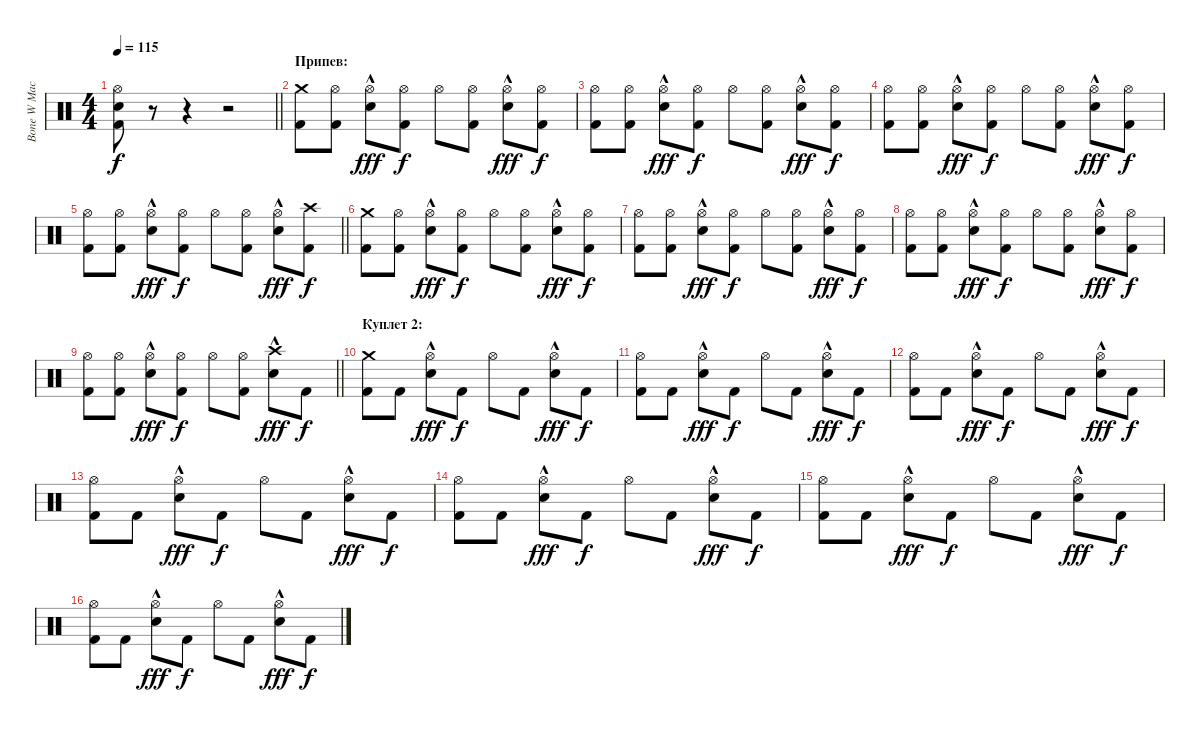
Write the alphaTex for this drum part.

\track ("Bone W Machine" "Bone W Mac") {instrument percussion}
\staff {score}
\articulation defaults
\ts (4 4)
\tempo 115
\clef neutral
\barLineRight lightlight
\ks c
("Hi-Hat (open)" "Electric Snare (hit)" "Kick (hit) 2").8{dy f} r.8 r.4 r.2 |
\section ("" "Припев:")
("Crash medium (hit)" "Kick (hit) 2").8 ("Hi-Hat (open)" "Kick (hit) 2").8 ("Hi-Hat (open)" "Electric Snare (hit)"{hac}).8{dy fff} ("Hi-Hat (open)" "Kick (hit) 2").8{dy f} "Hi-Hat (open)".8 ("Hi-Hat (open)" "Kick (hit) 2").8 ("Hi-Hat (open)" "Electric Snare (hit)"{hac}).8{dy fff} ("Hi-Hat (open)" "Kick (hit) 2").8{dy f} |
("Hi-Hat (open)" "Kick (hit) 2").8 ("Hi-Hat (open)" "Kick (hit) 2").8 ("Hi-Hat (open)" "Electric Snare (hit)"{hac}).8{dy fff} ("Hi-Hat (open)" "Kick (hit) 2").8{dy f} "Hi-Hat (open)".8 ("Hi-Hat (open)" "Kick (hit) 2").8 ("Hi-Hat (open)" "Electric Snare (hit)"{hac}).8{dy fff} ("Hi-Hat (open)" "Kick (hit) 2").8{dy f} |
("Hi-Hat (open)" "Kick (hit) 2").8 ("Hi-Hat (open)" "Kick (hit) 2").8 ("Hi-Hat (open)" "Electric Snare (hit)"{hac}).8{dy fff} ("Hi-Hat (open)" "Kick (hit) 2").8{dy f} "Hi-Hat (open)".8 ("Hi-Hat (open)" "Kick (hit) 2").8 ("Hi-Hat (open)" "Electric Snare (hit)"{hac}).8{dy fff} ("Hi-Hat (open)" "Kick (hit) 2").8{dy f} |
\barLineRight lightlight
("Hi-Hat (open)" "Kick (hit) 2").8 ("Hi-Hat (open)" "Kick (hit) 2").8 ("Hi-Hat (open)" "Electric Snare (hit)"{hac}).8{dy fff} ("Hi-Hat (open)" "Kick (hit) 2").8{dy f} "Hi-Hat (open)".8 ("Hi-Hat (open)" "Kick (hit) 2").8 ("Hi-Hat (open)" "Electric Snare (hit)"{hac}).8{dy fff} ("Crash high (hit)" "Kick (hit) 2").8{dy f} |
("Crash medium (hit)" "Kick (hit) 2").8 ("Hi-Hat (open)" "Kick (hit) 2").8 ("Hi-Hat (open)" "Electric Snare (hit)"{hac}).8{dy fff} ("Hi-Hat (open)" "Kick (hit) 2").8{dy f} "Hi-Hat (open)".8 ("Hi-Hat (open)" "Kick (hit) 2").8 ("Hi-Hat (open)" "Electric Snare (hit)"{hac}).8{dy fff} ("Hi-Hat (open)" "Kick (hit) 2").8{dy f} |
("Hi-Hat (open)" "Kick (hit) 2").8 ("Hi-Hat (open)" "Kick (hit) 2").8 ("Hi-Hat (open)" "Electric Snare (hit)"{hac}).8{dy fff} ("Hi-Hat (open)" "Kick (hit) 2").8{dy f} "Hi-Hat (open)".8 ("Hi-Hat (open)" "Kick (hit) 2").8 ("Hi-Hat (open)" "Electric Snare (hit)"{hac}).8{dy fff} ("Hi-Hat (open)" "Kick (hit) 2").8{dy f} |
("Hi-Hat (open)" "Kick (hit) 2").8 ("Hi-Hat (open)" "Kick (hit) 2").8 ("Hi-Hat (open)" "Electric Snare (hit)"{hac}).8{dy fff} ("Hi-Hat (open)" "Kick (hit) 2").8{dy f} "Hi-Hat (open)".8 ("Hi-Hat (open)" "Kick (hit) 2").8 ("Hi-Hat (open)" "Electric Snare (hit)"{hac}).8{dy fff} ("Hi-Hat (open)" "Kick (hit) 2").8{dy f} |
\barLineRight lightlight
("Hi-Hat (open)" "Kick (hit) 2").8 ("Hi-Hat (open)" "Kick (hit) 2").8 ("Hi-Hat (open)" "Electric Snare (hit)"{hac}).8{dy fff} ("Hi-Hat (open)" "Kick (hit) 2").8{dy f} "Hi-Hat (open)".8 ("Hi-Hat (open)" "Kick (hit) 2").8 ("Crash high (hit)" "Electric Snare (hit)"{hac}).8{dy fff} "Kick (hit) 2".8{dy f} |
\section ("" "Куплет 2:")
("Crash medium (hit)" "Kick (hit) 2").8 "Kick (hit) 2".8 ("Hi-Hat (open)" "Electric Snare (hit)"{hac}).8{dy fff} "Kick (hit) 2".8{dy f} "Hi-Hat (open)".8 "Kick (hit) 2".8 ("Hi-Hat (open)" "Electric Snare (hit)"{hac}).8{dy fff} "Kick (hit) 2".8{dy f} |
("Hi-Hat (open)" "Kick (hit) 2").8 "Kick (hit) 2".8 ("Hi-Hat (open)" "Electric Snare (hit)"{hac}).8{dy fff} "Kick (hit) 2".8{dy f} "Hi-Hat (open)".8 "Kick (hit) 2".8 ("Hi-Hat (open)" "Electric Snare (hit)"{hac}).8{dy fff} "Kick (hit) 2".8{dy f} |
("Hi-Hat (open)" "Kick (hit) 2").8 "Kick (hit) 2".8 ("Hi-Hat (open)" "Electric Snare (hit)"{hac}).8{dy fff} "Kick (hit) 2".8{dy f} "Hi-Hat (open)".8 "Kick (hit) 2".8 ("Hi-Hat (open)" "Electric Snare (hit)"{hac}).8{dy fff} "Kick (hit) 2".8{dy f} |
("Hi-Hat (open)" "Kick (hit) 2").8 "Kick (hit) 2".8 ("Hi-Hat (open)" "Electric Snare (hit)"{hac}).8{dy fff} "Kick (hit) 2".8{dy f} "Hi-Hat (open)".8 "Kick (hit) 2".8 ("Hi-Hat (open)" "Electric Snare (hit)"{hac}).8{dy fff} "Kick (hit) 2".8{dy f} |
("Hi-Hat (open)" "Kick (hit) 2").8 "Kick (hit) 2".8 ("Hi-Hat (open)" "Electric Snare (hit)"{hac}).8{dy fff} "Kick (hit) 2".8{dy f} "Hi-Hat (open)".8 "Kick (hit) 2".8 ("Hi-Hat (open)" "Electric Snare (hit)"{hac}).8{dy fff} "Kick (hit) 2".8{dy f} |
("Hi-Hat (open)" "Kick (hit) 2").8 "Kick (hit) 2".8 ("Hi-Hat (open)" "Electric Snare (hit)"{hac}).8{dy fff} "Kick (hit) 2".8{dy f} "Hi-Hat (open)".8 "Kick (hit) 2".8 ("Hi-Hat (open)" "Electric Snare (hit)"{hac}).8{dy fff} "Kick (hit) 2".8{dy f} |
("Hi-Hat (open)" "Kick (hit) 2").8 "Kick (hit) 2".8 ("Hi-Hat (open)" "Electric Snare (hit)"{hac}).8{dy fff} "Kick (hit) 2".8{dy f} "Hi-Hat (open)".8 "Kick (hit) 2".8 ("Hi-Hat (open)" "Electric Snare (hit)"{hac}).8{dy fff} "Kick (hit) 2".8{dy f}
